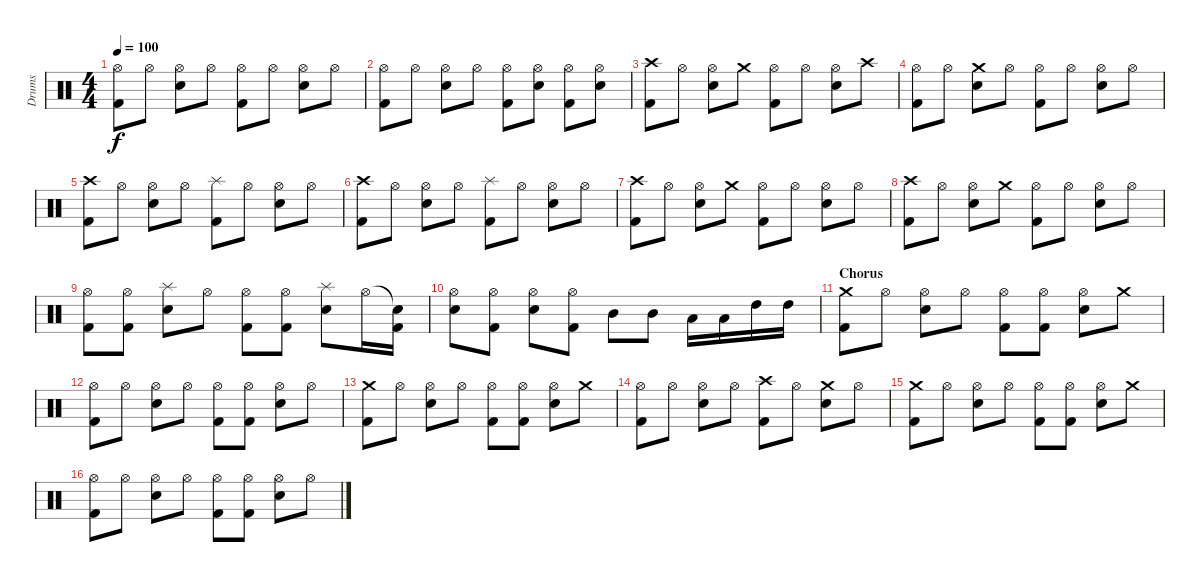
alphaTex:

\track ("Drums" "Drums") {instrument percussion}
\staff {score}
\articulation defaults
\ts (4 4)
\tempo 100
\clef neutral
\ks c
("Hi-Hat (open)" "Kick (hit) 2").8{dy f} "Hi-Hat (open)".8 ("Hi-Hat (open)" "Electric Snare (hit)").8 "Hi-Hat (open)".8 ("Hi-Hat (open)" "Kick (hit) 2").8 "Hi-Hat (open)".8 ("Hi-Hat (open)" "Electric Snare (hit)").8 "Hi-Hat (open)".8 |
("Hi-Hat (open)" "Kick (hit) 2").8 "Hi-Hat (open)".8 ("Hi-Hat (open)" "Electric Snare (hit)").8 "Hi-Hat (open)".8 ("Hi-Hat (open)" "Kick (hit) 2").8 ("Hi-Hat (open)" "Electric Snare (hit)").8 ("Hi-Hat (open)" "Kick (hit) 2").8 ("Hi-Hat (open)" "Electric Snare (hit)").8 |
("Crash high (hit)" "Kick (hit) 2").8 "Hi-Hat (open)".8 ("Hi-Hat (open)" "Electric Snare (hit)").8 "Crash medium (hit)".8 ("Hi-Hat (open)" "Kick (hit) 2").8 "Hi-Hat (open)".8 ("Hi-Hat (open)" "Electric Snare (hit)").8 "Crash high (hit)".8 |
("Hi-Hat (open)" "Kick (hit) 2").8 "Hi-Hat (open)".8 ("Crash medium (hit)" "Electric Snare (hit)").8 "Hi-Hat (open)".8 ("Hi-Hat (open)" "Kick (hit) 2").8 "Hi-Hat (open)".8 ("Hi-Hat (open)" "Electric Snare (hit)").8 "Hi-Hat (open)".8 |
("Crash high (hit)" "Kick (hit) 2").8 "Hi-Hat (open)".8 ("Hi-Hat (open)" "Electric Snare (hit)").8 "Hi-Hat (open)".8 ("Splash (hit)" "Kick (hit) 2").8 "Hi-Hat (open)".8 ("Hi-Hat (open)" "Electric Snare (hit)").8 "Hi-Hat (open)".8 |
("Crash high (hit)" "Kick (hit) 2").8 "Hi-Hat (open)".8 ("Hi-Hat (open)" "Electric Snare (hit)").8 "Hi-Hat (open)".8 ("Splash (hit)" "Kick (hit) 2").8 "Hi-Hat (open)".8 ("Hi-Hat (open)" "Electric Snare (hit)").8 "Hi-Hat (open)".8 |
("Crash high (hit)" "Kick (hit) 2").8 "Hi-Hat (open)".8 ("Hi-Hat (open)" "Electric Snare (hit)").8 "Crash medium (hit)".8 ("Hi-Hat (open)" "Kick (hit) 2").8 "Hi-Hat (open)".8 ("Hi-Hat (open)" "Electric Snare (hit)").8 "Hi-Hat (open)".8 |
("Crash high (hit)" "Kick (hit) 2").8 "Hi-Hat (open)".8 ("Hi-Hat (open)" "Electric Snare (hit)").8 "Crash medium (hit)".8 ("Hi-Hat (open)" "Kick (hit) 2").8 "Hi-Hat (open)".8 ("Hi-Hat (open)" "Electric Snare (hit)").8 "Hi-Hat (open)".8 |
("Hi-Hat (open)" "Kick (hit) 2").8 ("Hi-Hat (open)" "Kick (hit) 2").8 ("Splash (hit)" "Electric Snare (hit)").8 "Hi-Hat (open)".8 ("Hi-Hat (open)" "Kick (hit) 2").8 ("Hi-Hat (open)" "Kick (hit) 2").8 ("Splash (hit)" "Electric Snare (hit)").8 "Hi-Hat (open)".16 ("Snare (hit)"{t} "Kick (hit) 2").16 |
("Hi-Hat (open)" "Electric Snare (hit)").8 ("Hi-Hat (open)" "Kick (hit) 2").8 ("Hi-Hat (open)" "Electric Snare (hit)").8 ("Hi-Hat (open)" "Kick (hit) 2").8 "Mid Tom (hit)".8 "Mid Tom (hit)".8 "Low Tom (hit)".16 "Low Tom (hit)".16 "High Tom (hit)".16 "High Tom (hit)".16 |
\section ("" "Chorus")
("Crash medium (hit)" "Kick (hit) 2").8 "Hi-Hat (open)".8 ("Hi-Hat (open)" "Electric Snare (hit)").8 "Hi-Hat (open)".8 ("Hi-Hat (open)" "Kick (hit) 2").8 ("Hi-Hat (open)" "Kick (hit) 2").8 ("Hi-Hat (open)" "Electric Snare (hit)").8 "Crash medium (hit)".8 |
("Hi-Hat (open)" "Kick (hit) 2").8 "Hi-Hat (open)".8 ("Hi-Hat (open)" "Electric Snare (hit)").8 "Hi-Hat (open)".8 ("Hi-Hat (open)" "Kick (hit) 2").8 ("Hi-Hat (open)" "Kick (hit) 2").8 ("Hi-Hat (open)" "Electric Snare (hit)").8 "Hi-Hat (open)".8 |
("Crash medium (hit)" "Kick (hit) 2").8 "Hi-Hat (open)".8 ("Hi-Hat (open)" "Electric Snare (hit)").8 "Hi-Hat (open)".8 ("Hi-Hat (open)" "Kick (hit) 2").8 ("Hi-Hat (open)" "Kick (hit) 2").8 ("Hi-Hat (open)" "Electric Snare (hit)").8 "Crash medium (hit)".8 |
("Hi-Hat (open)" "Kick (hit) 2").8 "Hi-Hat (open)".8 ("Hi-Hat (open)" "Electric Snare (hit)").8 "Hi-Hat (open)".8 ("Crash high (hit)" "Kick (hit) 2").8 "Hi-Hat (open)".8 ("Crash medium (hit)" "Electric Snare (hit)").8 "Hi-Hat (open)".8 |
("Crash medium (hit)" "Kick (hit) 2").8 "Hi-Hat (open)".8 ("Hi-Hat (open)" "Electric Snare (hit)").8 "Hi-Hat (open)".8 ("Hi-Hat (open)" "Kick (hit) 2").8 ("Hi-Hat (open)" "Kick (hit) 2").8 ("Hi-Hat (open)" "Electric Snare (hit)").8 "Crash medium (hit)".8 |
("Hi-Hat (open)" "Kick (hit) 2").8 "Hi-Hat (open)".8 ("Hi-Hat (open)" "Electric Snare (hit)").8 "Hi-Hat (open)".8 ("Hi-Hat (open)" "Kick (hit) 2").8 ("Hi-Hat (open)" "Kick (hit) 2").8 ("Hi-Hat (open)" "Electric Snare (hit)").8 "Hi-Hat (open)".8
